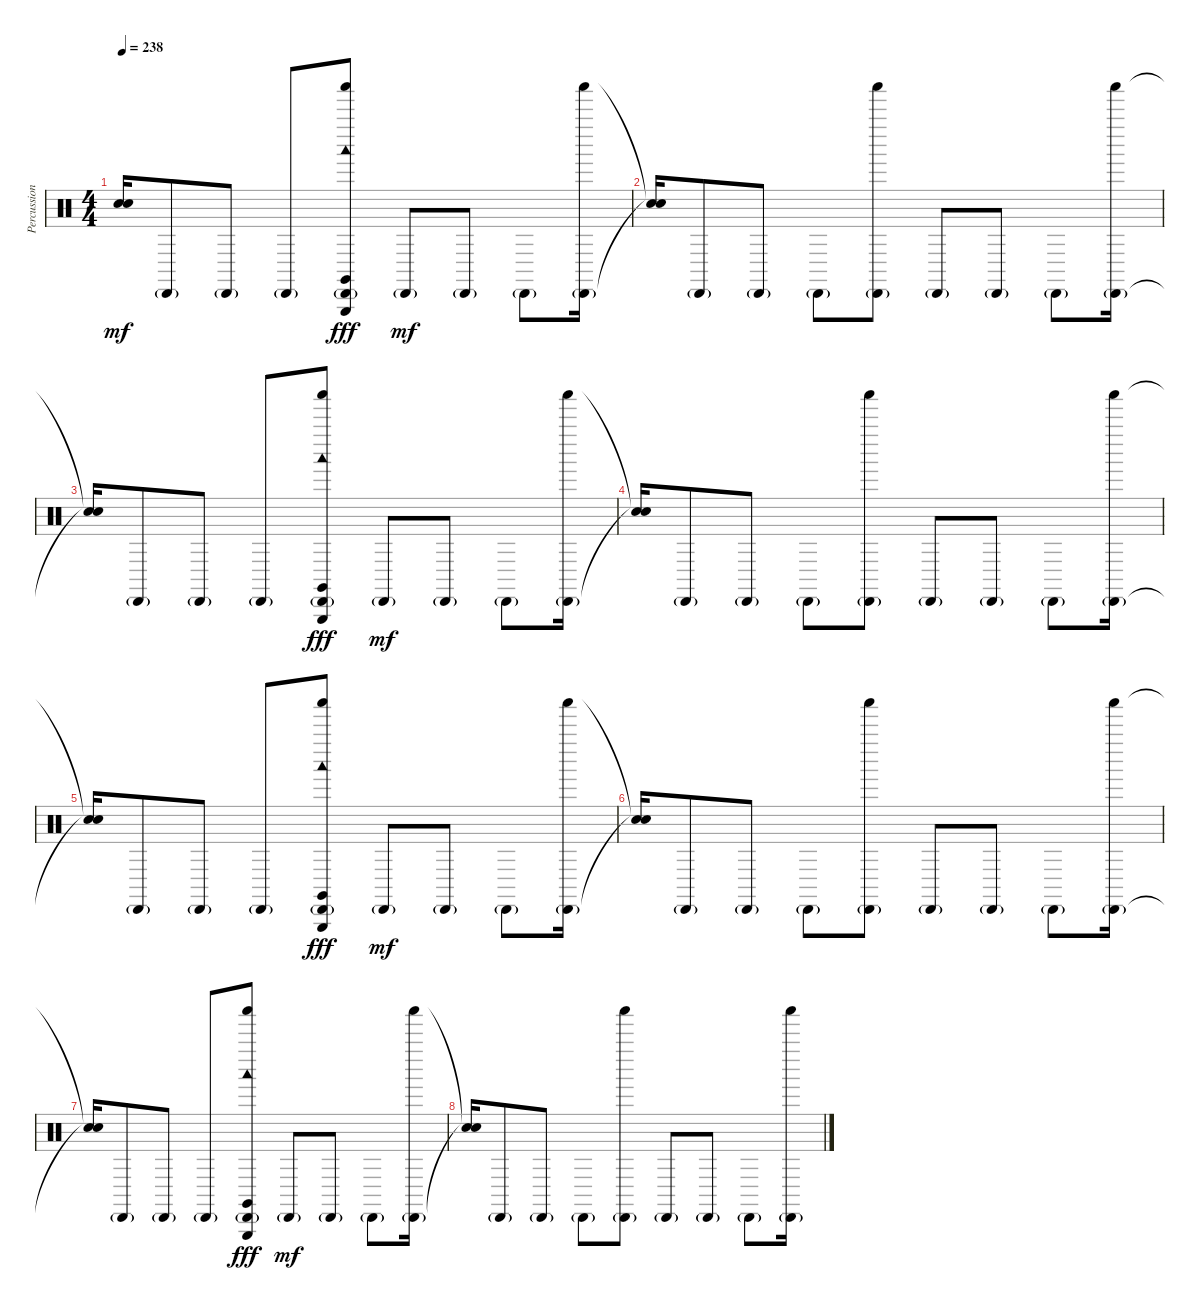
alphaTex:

\track ("Percussion" "Percussion") {instrument percussion}
\staff {score}
\articulation defaults
\ts (4 4)
\tempo 238
\clef neutral
\ks c
("Snare (hit)"{t} "Snare (hit)"{t}).16{dy mf} "Cabasa (hit)"{g}.8 "Cabasa (hit)"{g}.8 "Cabasa (hit)"{g}.8 ("Shaker (hit)" "Cabasa (hit)"{g} "Claves (hit)" "Woodblock low (hit)" "Triangle (hit)").8{dy fff} "Cabasa (hit)"{g}.8{dy mf} "Cabasa (hit)"{g}.8 "Cabasa (hit)"{g}.8 ("Shaker (hit)" "Cabasa (hit)"{g}).16 |
("Snare (hit)"{t} "Snare (hit)"{t}).16 "Cabasa (hit)"{g}.8 "Cabasa (hit)"{g}.8 "Cabasa (hit)"{g}.8 ("Shaker (hit)" "Cabasa (hit)"{g}).8 "Cabasa (hit)"{g}.8 "Cabasa (hit)"{g}.8 "Cabasa (hit)"{g}.8 ("Shaker (hit)" "Cabasa (hit)"{g}).16 |
("Snare (hit)"{t} "Snare (hit)"{t}).16 "Cabasa (hit)"{g}.8 "Cabasa (hit)"{g}.8 "Cabasa (hit)"{g}.8 ("Shaker (hit)" "Cabasa (hit)"{g} "Claves (hit)" "Woodblock low (hit)" "Triangle (hit)").8{dy fff} "Cabasa (hit)"{g}.8{dy mf} "Cabasa (hit)"{g}.8 "Cabasa (hit)"{g}.8 ("Shaker (hit)" "Cabasa (hit)"{g}).16 |
("Snare (hit)"{t} "Snare (hit)"{t}).16 "Cabasa (hit)"{g}.8 "Cabasa (hit)"{g}.8 "Cabasa (hit)"{g}.8 ("Shaker (hit)" "Cabasa (hit)"{g}).8 "Cabasa (hit)"{g}.8 "Cabasa (hit)"{g}.8 "Cabasa (hit)"{g}.8 ("Shaker (hit)" "Cabasa (hit)"{g}).16 |
("Snare (hit)"{t} "Snare (hit)"{t}).16 "Cabasa (hit)"{g}.8 "Cabasa (hit)"{g}.8 "Cabasa (hit)"{g}.8 ("Shaker (hit)" "Cabasa (hit)"{g} "Claves (hit)" "Woodblock low (hit)" "Triangle (hit)").8{dy fff} "Cabasa (hit)"{g}.8{dy mf} "Cabasa (hit)"{g}.8 "Cabasa (hit)"{g}.8 ("Shaker (hit)" "Cabasa (hit)"{g}).16 |
("Snare (hit)"{t} "Snare (hit)"{t}).16 "Cabasa (hit)"{g}.8 "Cabasa (hit)"{g}.8 "Cabasa (hit)"{g}.8 ("Shaker (hit)" "Cabasa (hit)"{g}).8 "Cabasa (hit)"{g}.8 "Cabasa (hit)"{g}.8 "Cabasa (hit)"{g}.8 ("Shaker (hit)" "Cabasa (hit)"{g}).16 |
("Snare (hit)"{t} "Snare (hit)"{t}).16 "Cabasa (hit)"{g}.8 "Cabasa (hit)"{g}.8 "Cabasa (hit)"{g}.8 ("Shaker (hit)" "Cabasa (hit)"{g} "Claves (hit)" "Woodblock low (hit)" "Triangle (hit)").8{dy fff} "Cabasa (hit)"{g}.8{dy mf} "Cabasa (hit)"{g}.8 "Cabasa (hit)"{g}.8 ("Shaker (hit)" "Cabasa (hit)"{g}).16 |
("Snare (hit)"{t} "Snare (hit)"{t}).16 "Cabasa (hit)"{g}.8 "Cabasa (hit)"{g}.8 "Cabasa (hit)"{g}.8 ("Shaker (hit)" "Cabasa (hit)"{g}).8 "Cabasa (hit)"{g}.8 "Cabasa (hit)"{g}.8 "Cabasa (hit)"{g}.8 ("Shaker (hit)" "Cabasa (hit)"{g}).16
